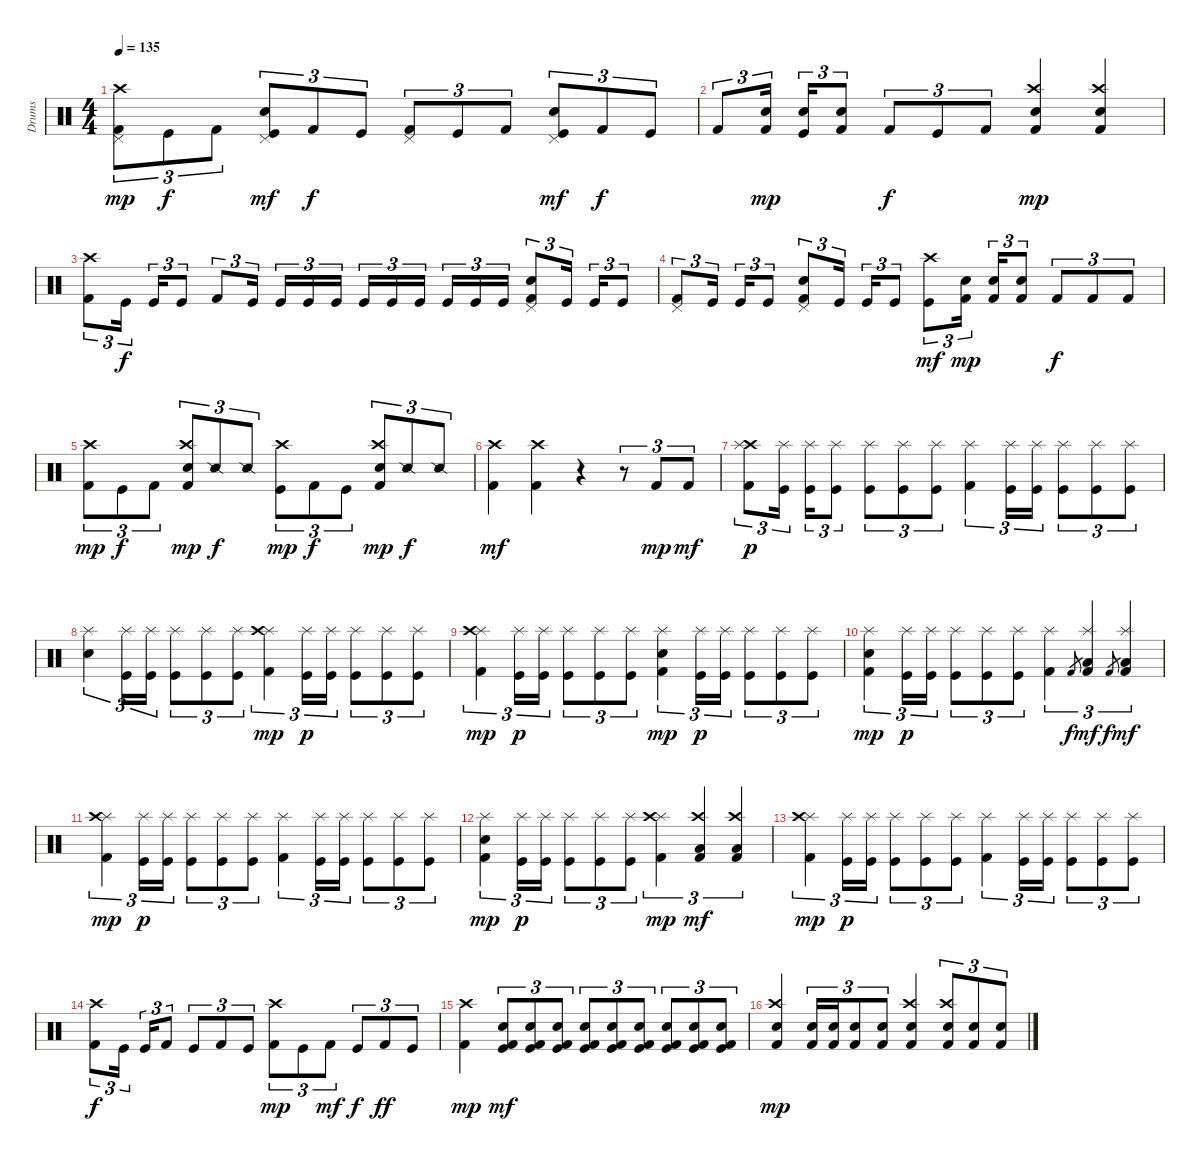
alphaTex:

\track ("Drums" "Drums") {instrument percussion}
\staff {score}
\articulation defaults
\ts (4 4)
\tempo 135
\clef neutral
\ks c
("Kick (hit) 2" "Pedal Hi-Hat (hit)" "Crash high (hit)").8{tu (3 2) dy mp} "Kick (hit)".8{tu (3 2) dy f} "Kick (hit) 2".8{tu (3 2)} ("Kick (hit)" "Snare (hit) 2" "Pedal Hi-Hat (hit)").8{tu (3 2) dy mf} "Kick (hit) 2".8{tu (3 2) dy f} "Kick (hit)".8{tu (3 2)} ("Kick (hit) 2" "Pedal Hi-Hat (hit)").8{tu (3 2)} "Kick (hit)".8{tu (3 2)} "Kick (hit) 2".8{tu (3 2)} ("Kick (hit)" "Snare (hit) 2" "Pedal Hi-Hat (hit)").8{tu (3 2) dy mf} "Kick (hit) 2".8{tu (3 2) dy f} "Kick (hit)".8{tu (3 2)} |
"Kick (hit) 2".8{tu (3 2)} ("Kick (hit) 2" "Electric Snare (hit)").16{tu (3 2) dy mp} ("Kick (hit)" "Electric Snare (hit)").16{tu (3 2)} ("Kick (hit) 2" "Electric Snare (hit)").8{tu (3 2)} "Kick (hit) 2".8{tu (3 2) dy f} "Kick (hit)".8{tu (3 2)} "Kick (hit) 2".8{tu (3 2)} ("Kick (hit) 2" "Snare (hit) 2" "Crash high (hit)").4{dy mp} ("Kick (hit) 2" "Snare (hit) 2" "Crash high (hit)").4 |
("Kick (hit) 2" "Crash high (hit)").8{tu (3 2)} "Kick (hit)".16{tu (3 2) dy f} "Kick (hit)".16{tu (3 2)} "Kick (hit)".8{tu (3 2)} "Kick (hit) 2".8{tu (3 2)} "Kick (hit)".16{tu (3 2)} "Kick (hit)".16{tu (3 2)} "Kick (hit)".16{tu (3 2)} "Kick (hit)".16{tu (3 2)} "Kick (hit)".16{tu (3 2)} "Kick (hit)".16{tu (3 2)} "Kick (hit)".16{tu (3 2)} "Kick (hit)".16{tu (3 2)} "Kick (hit)".16{tu (3 2)} "Kick (hit)".16{tu (3 2)} ("Kick (hit) 2" "Snare (hit) 2" "Pedal Hi-Hat (hit)").8{tu (3 2)} "Kick (hit)".16{tu (3 2)} "Kick (hit)".16{tu (3 2)} "Kick (hit)".8{tu (3 2)} |
("Kick (hit) 2" "Pedal Hi-Hat (hit)").8{tu (3 2)} "Kick (hit)".16{tu (3 2)} "Kick (hit)".16{tu (3 2)} "Kick (hit)".8{tu (3 2)} ("Kick (hit) 2" "Snare (hit) 2" "Pedal Hi-Hat (hit)").8{tu (3 2)} "Kick (hit)".16{tu (3 2)} "Kick (hit)".16{tu (3 2)} "Kick (hit)".8{tu (3 2)} ("Kick (hit)" "Crash high (hit)").8{tu (3 2) dy mf} ("Kick (hit) 2" "Electric Snare (hit)").16{tu (3 2) dy mp} ("Kick (hit) 2" "Electric Snare (hit)").16{tu (3 2)} ("Kick (hit) 2" "Electric Snare (hit)").8{tu (3 2)} "Kick (hit) 2".8{tu (3 2) dy f} "Kick (hit) 2".8{tu (3 2)} "Kick (hit) 2".8{tu (3 2)} |
("Kick (hit) 2" "Crash high (hit)").8{tu (3 2) dy mp} "Kick (hit)".8{tu (3 2) dy f} "Kick (hit) 2".8{tu (3 2)} ("Kick (hit) 2" "Crash high (hit)" "Snare (hit) 2").8{tu (3 2) dy mp} "Snare (side stick) 2".8{tu (3 2) dy f} "Snare (side stick) 2".8{tu (3 2)} ("Kick (hit)" "Crash high (hit)").8{tu (3 2) dy mp} "Kick (hit) 2".8{tu (3 2) dy f} "Kick (hit)".8{tu (3 2)} ("Kick (hit) 2" "Crash high (hit)" "Snare (hit) 2").8{tu (3 2) dy mp} "Snare (side stick) 2".8{tu (3 2) dy f} "Snare (side stick) 2".8{tu (3 2)} |
("Kick (hit) 2" "Crash high (hit)").4{dy mf} ("Kick (hit) 2" "Crash high (hit)").4 r.4 r.8{tu (3 2)} "Kick (hit) 2".8{tu (3 2) dy mp} "Kick (hit) 2".8{tu (3 2) dy mf} |
("Kick (hit) 2" "Crash high (hit)" "Splash (hit)").8{tu (3 2) dy p} ("Kick (hit)" "Splash (hit)").16{tu (3 2)} ("Kick (hit)" "Splash (hit)").16{tu (3 2)} ("Kick (hit)" "Splash (hit)").8{tu (3 2)} ("Kick (hit)" "Splash (hit)").8{tu (3 2)} ("Kick (hit)" "Splash (hit)").8{tu (3 2)} ("Kick (hit)" "Splash (hit)").8{tu (3 2)} ("Kick (hit) 2" "Splash (hit)").4{tu (3 2)} ("Kick (hit)" "Splash (hit)").16{tu (3 2)} ("Kick (hit)" "Splash (hit)").16{tu (3 2)} ("Kick (hit)" "Splash (hit)").8{tu (3 2)} ("Kick (hit)" "Splash (hit)").8{tu (3 2)} ("Kick (hit)" "Splash (hit)").8{tu (3 2)} |
("Electric Snare (hit)" "Splash (hit)").4{tu (3 2)} ("Kick (hit)" "Splash (hit)").16{tu (3 2)} ("Kick (hit)" "Splash (hit)").16{tu (3 2)} ("Kick (hit)" "Splash (hit)").8{tu (3 2)} ("Kick (hit)" "Splash (hit)").8{tu (3 2)} ("Kick (hit)" "Splash (hit)").8{tu (3 2)} ("Kick (hit) 2" "Splash (hit)" "Crash high (hit)").4{tu (3 2) dy mp} ("Kick (hit)" "Splash (hit)").16{tu (3 2) dy p} ("Kick (hit)" "Splash (hit)").16{tu (3 2)} ("Kick (hit)" "Splash (hit)").8{tu (3 2)} ("Kick (hit)" "Splash (hit)").8{tu (3 2)} ("Kick (hit)" "Splash (hit)").8{tu (3 2)} |
("Kick (hit) 2" "Splash (hit)" "Crash high (hit)").4{tu (3 2) dy mp} ("Kick (hit)" "Splash (hit)").16{tu (3 2) dy p} ("Kick (hit)" "Splash (hit)").16{tu (3 2)} ("Kick (hit)" "Splash (hit)").8{tu (3 2)} ("Kick (hit)" "Splash (hit)").8{tu (3 2)} ("Kick (hit)" "Splash (hit)").8{tu (3 2)} ("Kick (hit) 2" "Splash (hit)" "Electric Snare (hit)").4{tu (3 2) dy mp} ("Kick (hit)" "Splash (hit)").16{tu (3 2) dy p} ("Kick (hit)" "Splash (hit)").16{tu (3 2)} ("Kick (hit)" "Splash (hit)").8{tu (3 2)} ("Kick (hit)" "Splash (hit)").8{tu (3 2)} ("Kick (hit)" "Splash (hit)").8{tu (3 2)} |
("Kick (hit) 2" "Splash (hit)" "Electric Snare (hit)").4{tu (3 2) dy mp} ("Kick (hit)" "Splash (hit)").16{tu (3 2) dy p} ("Kick (hit)" "Splash (hit)").16{tu (3 2)} ("Kick (hit)" "Splash (hit)").8{tu (3 2)} ("Kick (hit)" "Splash (hit)").8{tu (3 2)} ("Kick (hit)" "Splash (hit)").8{tu (3 2)} ("Kick (hit) 2" "Splash (hit)").4{tu (3 2)} "Kick (hit) 2".8{gr dy f} ("Kick (hit) 2" "Splash (hit)" "Low Floor Tom (hit)").4{tu (3 2) dy mf} "Kick (hit) 2".8{gr dy f} ("Kick (hit) 2" "Splash (hit)" "Low Floor Tom (hit)").4{tu (3 2) dy mf} |
("Kick (hit) 2" "Splash (hit)" "Crash high (hit)").4{tu (3 2) dy mp} ("Kick (hit)" "Splash (hit)").16{tu (3 2) dy p} ("Kick (hit)" "Splash (hit)").16{tu (3 2)} ("Kick (hit)" "Splash (hit)").8{tu (3 2)} ("Kick (hit)" "Splash (hit)").8{tu (3 2)} ("Kick (hit)" "Splash (hit)").8{tu (3 2)} ("Kick (hit) 2" "Splash (hit)").4{tu (3 2)} ("Kick (hit)" "Splash (hit)").16{tu (3 2)} ("Kick (hit)" "Splash (hit)").16{tu (3 2)} ("Kick (hit)" "Splash (hit)").8{tu (3 2)} ("Kick (hit)" "Splash (hit)").8{tu (3 2)} ("Kick (hit)" "Splash (hit)").8{tu (3 2)} |
("Kick (hit) 2" "Splash (hit)" "Electric Snare (hit)").4{tu (3 2) dy mp} ("Kick (hit)" "Splash (hit)").16{tu (3 2) dy p} ("Kick (hit)" "Splash (hit)").16{tu (3 2)} ("Kick (hit)" "Splash (hit)").8{tu (3 2)} ("Kick (hit)" "Splash (hit)").8{tu (3 2)} ("Kick (hit)" "Splash (hit)").8{tu (3 2)} ("Kick (hit) 2" "Splash (hit)" "Crash high (hit)").4{tu (3 2) dy mp} ("Kick (hit) 2" "Crash high (hit)" "Low Floor Tom (hit)").4{tu (3 2) dy mf} ("Kick (hit) 2" "Crash high (hit)" "Low Floor Tom (hit)").4{tu (3 2)} |
("Kick (hit) 2" "Splash (hit)" "Crash high (hit)").4{tu (3 2) dy mp} ("Kick (hit)" "Splash (hit)").16{tu (3 2) dy p} ("Kick (hit)" "Splash (hit)").16{tu (3 2)} ("Kick (hit)" "Splash (hit)").8{tu (3 2)} ("Kick (hit)" "Splash (hit)").8{tu (3 2)} ("Kick (hit)" "Splash (hit)").8{tu (3 2)} ("Kick (hit) 2" "Splash (hit)").4{tu (3 2)} ("Kick (hit)" "Splash (hit)").16{tu (3 2)} ("Kick (hit)" "Splash (hit)").16{tu (3 2)} ("Kick (hit)" "Splash (hit)").8{tu (3 2)} ("Kick (hit)" "Splash (hit)").8{tu (3 2)} ("Kick (hit)" "Splash (hit)").8{tu (3 2)} |
("Kick (hit) 2" "Crash high (hit)").8{tu (3 2) dy f} "Kick (hit)".16{tu (3 2)} "Kick (hit)".16{tu (3 2)} "Kick (hit) 2".8{tu (3 2)} "Kick (hit)".8{tu (3 2)} "Kick (hit) 2".8{tu (3 2)} "Kick (hit)".8{tu (3 2)} ("Kick (hit) 2" "Crash high (hit)").8{tu (3 2) dy mp} "Kick (hit)".8{tu (3 2)} "Kick (hit) 2".8{tu (3 2) dy mf} "Kick (hit)".8{tu (3 2) dy f} "Kick (hit) 2".8{tu (3 2) dy ff} "Kick (hit)".8{tu (3 2)} |
("Kick (hit) 2" "Crash high (hit)").4{dy mp} ("Kick (hit) 2" "Kick (hit)" "Electric Snare (hit)").8{tu (3 2) dy mf} ("Kick (hit) 2" "Kick (hit)" "Electric Snare (hit)").8{tu (3 2)} ("Kick (hit) 2" "Kick (hit)" "Electric Snare (hit)").8{tu (3 2)} ("Kick (hit) 2" "Kick (hit)" "Electric Snare (hit)").8{tu (3 2)} ("Kick (hit) 2" "Kick (hit)" "Electric Snare (hit)").8{tu (3 2)} ("Kick (hit) 2" "Kick (hit)" "Electric Snare (hit)").8{tu (3 2)} ("Kick (hit) 2" "Kick (hit)" "Electric Snare (hit)").8{tu (3 2)} ("Kick (hit) 2" "Kick (hit)" "Electric Snare (hit)").8{tu (3 2)} ("Kick (hit) 2" "Kick (hit)" "Electric Snare (hit)").8{tu (3 2)} |
("Kick (hit) 2" "Crash high (hit)" "Electric Snare (hit)").4{dy mp} ("Kick (hit) 2" "Electric Snare (hit)").16{tu (3 2)} ("Kick (hit) 2" "Electric Snare (hit)").16{tu (3 2)} ("Kick (hit) 2" "Electric Snare (hit)").8{tu (3 2)} ("Kick (hit) 2" "Electric Snare (hit)").8{tu (3 2)} ("Kick (hit) 2" "Crash high (hit)" "Electric Snare (hit)").4 ("Kick (hit) 2" "Crash high (hit)" "Electric Snare (hit)").8{tu (3 2)} ("Kick (hit) 2" "Electric Snare (hit)").8{tu (3 2)} ("Kick (hit) 2" "Electric Snare (hit)").8{tu (3 2)}
